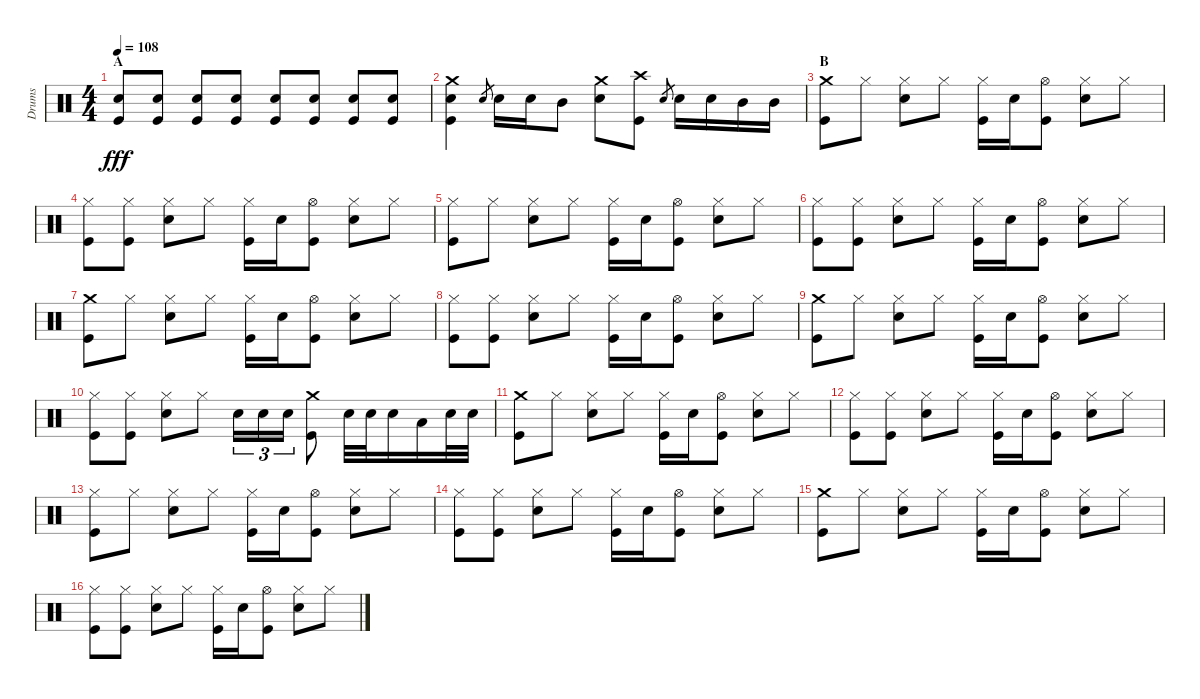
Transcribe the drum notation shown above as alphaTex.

\track ("Drums" "Drums") {instrument percussion}
\staff {score}
\articulation defaults
\ts (4 4)
\section ("" "A")
\tempo 108
\clef neutral
\ks c
("Snare (hit) 2" "Kick (hit)").8{dy fff} ("Snare (hit) 2" "Kick (hit)").8 ("Snare (hit) 2" "Kick (hit)").8 ("Snare (hit) 2" "Kick (hit)").8 ("Snare (hit) 2" "Kick (hit)").8 ("Snare (hit) 2" "Kick (hit)").8 ("Snare (hit) 2" "Kick (hit)").8 ("Snare (hit) 2" "Kick (hit)").8 |
("Crash medium (hit)" "Snare (hit) 2" "Kick (hit)").4 "Snare (hit) 2".8{gr} "Snare (hit) 2".16 "Snare (hit) 2".16 "Mid Tom (hit)".8 ("Crash medium (hit)" "Snare (hit) 2").8 ("Crash high (hit)" "Kick (hit)").8 "Snare (hit) 2".8{gr} "Snare (hit) 2".16 "Snare (hit) 2".16 "Mid Tom (hit)".16 "Mid Tom (hit)".16 |
\section ("" "B")
("Crash medium (hit)" "Kick (hit)").8 "Hi-Hat (closed)".8 ("Hi-Hat (closed)" "Snare (hit) 2").8 "Hi-Hat (closed)".8 ("Hi-Hat (closed)" "Kick (hit)").16 "Snare (hit) 2".16 ("Hi-Hat (open)" "Kick (hit)").8 ("Hi-Hat (closed)" "Snare (hit) 2").8 "Hi-Hat (closed)".8 |
("Hi-Hat (closed)" "Kick (hit)").8 ("Hi-Hat (closed)" "Kick (hit)").8 ("Hi-Hat (closed)" "Snare (hit) 2").8 "Hi-Hat (closed)".8 ("Hi-Hat (closed)" "Kick (hit)").16 "Snare (hit) 2".16 ("Hi-Hat (open)" "Kick (hit)").8 ("Hi-Hat (closed)" "Snare (hit) 2").8 "Hi-Hat (closed)".8 |
("Hi-Hat (closed)" "Kick (hit)").8 "Hi-Hat (closed)".8 ("Hi-Hat (closed)" "Snare (hit) 2").8 "Hi-Hat (closed)".8 ("Hi-Hat (closed)" "Kick (hit)").16 "Snare (hit) 2".16 ("Hi-Hat (open)" "Kick (hit)").8 ("Hi-Hat (closed)" "Snare (hit) 2").8 "Hi-Hat (closed)".8 |
("Hi-Hat (closed)" "Kick (hit)").8 ("Hi-Hat (closed)" "Kick (hit)").8 ("Hi-Hat (closed)" "Snare (hit) 2").8 "Hi-Hat (closed)".8 ("Hi-Hat (closed)" "Kick (hit)").16 "Snare (hit) 2".16 ("Hi-Hat (open)" "Kick (hit)").8 ("Hi-Hat (closed)" "Snare (hit) 2").8 "Hi-Hat (closed)".8 |
("Crash medium (hit)" "Kick (hit)").8 "Hi-Hat (closed)".8 ("Hi-Hat (closed)" "Snare (hit) 2").8 "Hi-Hat (closed)".8 ("Hi-Hat (closed)" "Kick (hit)").16 "Snare (hit) 2".16 ("Hi-Hat (open)" "Kick (hit)").8 ("Hi-Hat (closed)" "Snare (hit) 2").8 "Hi-Hat (closed)".8 |
("Hi-Hat (closed)" "Kick (hit)").8 ("Hi-Hat (closed)" "Kick (hit)").8 ("Hi-Hat (closed)" "Snare (hit) 2").8 "Hi-Hat (closed)".8 ("Hi-Hat (closed)" "Kick (hit)").16 "Snare (hit) 2".16 ("Hi-Hat (open)" "Kick (hit)").8 ("Hi-Hat (closed)" "Snare (hit) 2").8 "Hi-Hat (closed)".8 |
("Crash medium (hit)" "Kick (hit)").8 "Hi-Hat (closed)".8 ("Hi-Hat (closed)" "Snare (hit) 2").8 "Hi-Hat (closed)".8 ("Hi-Hat (closed)" "Kick (hit)").16 "Snare (hit) 2".16 ("Hi-Hat (open)" "Kick (hit)").8 ("Hi-Hat (closed)" "Snare (hit) 2").8 "Hi-Hat (closed)".8 |
("Hi-Hat (closed)" "Kick (hit)").8 ("Hi-Hat (closed)" "Kick (hit)").8 ("Hi-Hat (closed)" "Snare (hit) 2").8 "Hi-Hat (closed)".8 "Snare (hit) 2".16{tu (3 2)} "Snare (hit) 2".16{tu (3 2)} "Snare (hit) 2".16{tu (3 2)} ("Crash medium (hit)" "Kick (hit)").8 "Snare (hit) 2".32 "Snare (hit) 2".32 "Snare (hit) 2".16 "Low Tom (hit)".16 "Snare (hit) 2".32 "Snare (hit) 2".32 |
("Crash medium (hit)" "Kick (hit)").8 "Hi-Hat (closed)".8 ("Hi-Hat (closed)" "Snare (hit) 2").8 "Hi-Hat (closed)".8 ("Hi-Hat (closed)" "Kick (hit)").16 "Snare (hit) 2".16 ("Hi-Hat (open)" "Kick (hit)").8 ("Hi-Hat (closed)" "Snare (hit) 2").8 "Hi-Hat (closed)".8 |
("Hi-Hat (closed)" "Kick (hit)").8 ("Hi-Hat (closed)" "Kick (hit)").8 ("Hi-Hat (closed)" "Snare (hit) 2").8 "Hi-Hat (closed)".8 ("Hi-Hat (closed)" "Kick (hit)").16 "Snare (hit) 2".16 ("Hi-Hat (open)" "Kick (hit)").8 ("Hi-Hat (closed)" "Snare (hit) 2").8 "Hi-Hat (closed)".8 |
("Hi-Hat (closed)" "Kick (hit)").8 "Hi-Hat (closed)".8 ("Hi-Hat (closed)" "Snare (hit) 2").8 "Hi-Hat (closed)".8 ("Hi-Hat (closed)" "Kick (hit)").16 "Snare (hit) 2".16 ("Hi-Hat (open)" "Kick (hit)").8 ("Hi-Hat (closed)" "Snare (hit) 2").8 "Hi-Hat (closed)".8 |
("Hi-Hat (closed)" "Kick (hit)").8 ("Hi-Hat (closed)" "Kick (hit)").8 ("Hi-Hat (closed)" "Snare (hit) 2").8 "Hi-Hat (closed)".8 ("Hi-Hat (closed)" "Kick (hit)").16 "Snare (hit) 2".16 ("Hi-Hat (open)" "Kick (hit)").8 ("Hi-Hat (closed)" "Snare (hit) 2").8 "Hi-Hat (closed)".8 |
("Crash medium (hit)" "Kick (hit)").8 "Hi-Hat (closed)".8 ("Hi-Hat (closed)" "Snare (hit) 2").8 "Hi-Hat (closed)".8 ("Hi-Hat (closed)" "Kick (hit)").16 "Snare (hit) 2".16 ("Hi-Hat (open)" "Kick (hit)").8 ("Hi-Hat (closed)" "Snare (hit) 2").8 "Hi-Hat (closed)".8 |
("Hi-Hat (closed)" "Kick (hit)").8 ("Hi-Hat (closed)" "Kick (hit)").8 ("Hi-Hat (closed)" "Snare (hit) 2").8 "Hi-Hat (closed)".8 ("Hi-Hat (closed)" "Kick (hit)").16 "Snare (hit) 2".16 ("Hi-Hat (open)" "Kick (hit)").8 ("Hi-Hat (closed)" "Snare (hit) 2").8 "Hi-Hat (closed)".8
